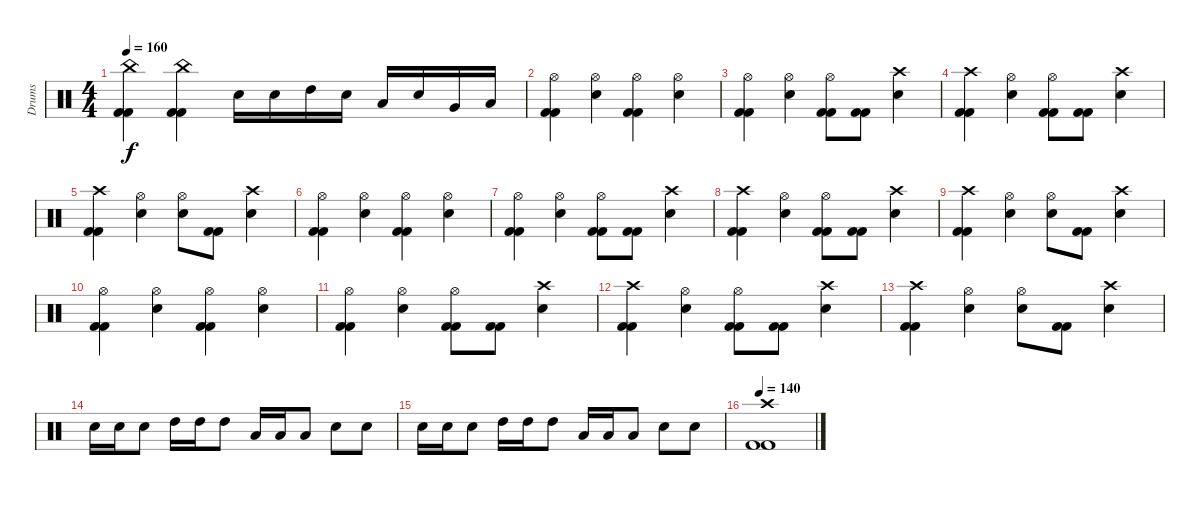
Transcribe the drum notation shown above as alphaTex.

\track ("Drums" "Drums") {instrument percussion}
\staff {score}
\articulation defaults
\ts (4 4)
\tempo 160
\clef neutral
\ks c
("China (hit)" "Kick (hit) 2" "Kick (hit) 2").4{dy f} ("China (hit)" "Kick (hit) 2" "Kick (hit) 2").4 "Electric Snare (hit)".16 "Electric Snare (hit)".16 "High Tom (hit)".16 "Electric Snare (hit)".16 "Low Tom (hit)".16 "Electric Snare (hit)".16 "Very Low Tom (hit)".16 "Low Floor Tom (hit)".16 |
("Hi-Hat (open)" "Kick (hit) 2" "Kick (hit) 2").4 ("Electric Snare (hit)" "Hi-Hat (open)").4 ("Kick (hit) 2" "Kick (hit) 2" "Hi-Hat (open)").4 ("Hi-Hat (open)" "Electric Snare (hit)").4 |
("Hi-Hat (open)" "Kick (hit) 2" "Kick (hit) 2").4 ("Electric Snare (hit)" "Hi-Hat (open)").4 ("Kick (hit) 2" "Kick (hit) 2" "Hi-Hat (open)").8 ("Kick (hit) 2" "Kick (hit) 2").8 ("Crash high (hit)" "Electric Snare (hit)").4 |
("Crash high (hit)" "Kick (hit) 2" "Kick (hit) 2").4 ("Electric Snare (hit)" "Hi-Hat (open)").4 ("Kick (hit) 2" "Kick (hit) 2" "Hi-Hat (open)").8 ("Kick (hit) 2" "Kick (hit) 2").8 ("Electric Snare (hit)" "Crash high (hit)").4 |
("Crash high (hit)" "Kick (hit) 2" "Kick (hit) 2").4 ("Electric Snare (hit)" "Hi-Hat (open)").4 ("Hi-Hat (open)" "Electric Snare (hit)").8 ("Kick (hit) 2" "Kick (hit) 2").8 ("Crash high (hit)" "Electric Snare (hit)").4 |
("Hi-Hat (open)" "Kick (hit) 2" "Kick (hit) 2").4 ("Electric Snare (hit)" "Hi-Hat (open)").4 ("Kick (hit) 2" "Kick (hit) 2" "Hi-Hat (open)").4 ("Hi-Hat (open)" "Electric Snare (hit)").4 |
("Hi-Hat (open)" "Kick (hit) 2" "Kick (hit) 2").4 ("Electric Snare (hit)" "Hi-Hat (open)").4 ("Kick (hit) 2" "Kick (hit) 2" "Hi-Hat (open)").8 ("Kick (hit) 2" "Kick (hit) 2").8 ("Crash high (hit)" "Electric Snare (hit)").4 |
("Crash high (hit)" "Kick (hit) 2" "Kick (hit) 2").4 ("Electric Snare (hit)" "Hi-Hat (open)").4 ("Kick (hit) 2" "Kick (hit) 2" "Hi-Hat (open)").8 ("Kick (hit) 2" "Kick (hit) 2").8 ("Electric Snare (hit)" "Crash high (hit)").4 |
("Crash high (hit)" "Kick (hit) 2" "Kick (hit) 2").4 ("Electric Snare (hit)" "Hi-Hat (open)").4 ("Hi-Hat (open)" "Electric Snare (hit)").8 ("Kick (hit) 2" "Kick (hit) 2").8 ("Crash high (hit)" "Electric Snare (hit)").4 |
("Hi-Hat (open)" "Kick (hit) 2" "Kick (hit) 2").4 ("Electric Snare (hit)" "Hi-Hat (open)").4 ("Kick (hit) 2" "Kick (hit) 2" "Hi-Hat (open)").4 ("Hi-Hat (open)" "Electric Snare (hit)").4 |
("Hi-Hat (open)" "Kick (hit) 2" "Kick (hit) 2").4 ("Electric Snare (hit)" "Hi-Hat (open)").4 ("Kick (hit) 2" "Kick (hit) 2" "Hi-Hat (open)").8 ("Kick (hit) 2" "Kick (hit) 2").8 ("Crash high (hit)" "Electric Snare (hit)").4 |
("Crash high (hit)" "Kick (hit) 2" "Kick (hit) 2").4 ("Electric Snare (hit)" "Hi-Hat (open)").4 ("Kick (hit) 2" "Kick (hit) 2" "Hi-Hat (open)").8 ("Kick (hit) 2" "Kick (hit) 2").8 ("Electric Snare (hit)" "Crash high (hit)").4 |
("Crash high (hit)" "Kick (hit) 2" "Kick (hit) 2").4 ("Electric Snare (hit)" "Hi-Hat (open)").4 ("Hi-Hat (open)" "Electric Snare (hit)").8 ("Kick (hit) 2" "Kick (hit) 2").8 ("Crash high (hit)" "Electric Snare (hit)").4 |
"Electric Snare (hit)".16 "Electric Snare (hit)".16 "Electric Snare (hit)".8 "High Tom (hit)".16 "High Tom (hit)".16 "High Tom (hit)".8 "Low Tom (hit)".16 "Low Tom (hit)".16 "Low Tom (hit)".8 "Electric Snare (hit)".8 "Electric Snare (hit)".8 |
"Electric Snare (hit)".16 "Electric Snare (hit)".16 "Electric Snare (hit)".8 "High Tom (hit)".16 "High Tom (hit)".16 "High Tom (hit)".8 "Low Tom (hit)".16 "Low Tom (hit)".16 "Low Tom (hit)".8 "Electric Snare (hit)".8 "Electric Snare (hit)".8 |
\tempo 140
("Crash high (hit)" "Kick (hit) 2" "Kick (hit) 2").1
